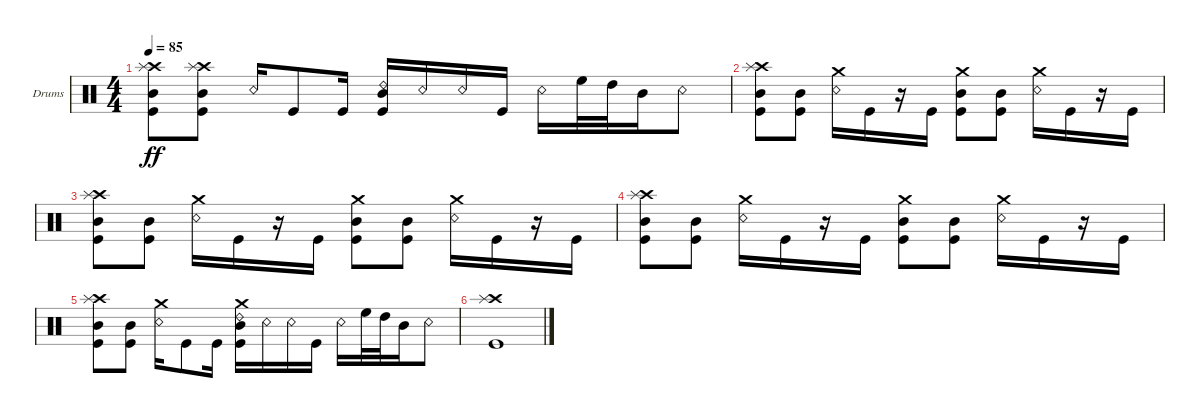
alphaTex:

\defaultSystemsLayout 4
\bracketExtendMode groupsimilarinstruments
\firstSystemTrackNameOrientation horizontal
\otherSystemsTrackNameOrientation horizontal
\track ("Drumkit" "Drums") {instrument percussion}
\staff {score}
\articulation defaults
\ts (4 4)
\tempo 85
\clef neutral
\scale
0.333333
\ks c
("Crash high (hit)" "Splash (hit)" "Mid Tom (hit)" "Kick (hit)").8{dy ff} ("Crash high (hit)" "Splash (hit)" "Mid Tom (hit)" "Kick (hit)").8 "Snare (rim shot)".16 "Kick (hit)".8 "Kick (hit)".16 ("Mid Tom (hit)" "Kick (hit)" "Ride (bell) 2").16 "Snare (rim shot)".16 "Snare (rim shot)".16 "Kick (hit)".16 "Snare (rim shot)".16 "High Floor Tom (hit)".32 "High Tom (hit)".32 "Mid Tom (hit)".16 "Snare (rim shot)".8 |
\scale
0.333333 ("Crash high (hit)" "Splash (hit)" "Mid Tom (hit)" "Kick (hit)").8 ("Mid Tom (hit)" "Kick (hit)").8 ("Snare (rim shot)" "Crash medium (hit)").16 "Kick (hit)".16 r.16 "Kick (hit)".16 ("Mid Tom (hit)" "Kick (hit)" "Crash medium (hit)").8 ("Mid Tom (hit)" "Kick (hit)").8 ("Snare (rim shot)" "Crash medium (hit)").16 "Kick (hit)".16 r.16 "Kick (hit)".16 |
\scale
0.333333 ("Crash high (hit)" "Splash (hit)" "Mid Tom (hit)" "Kick (hit)").8 ("Mid Tom (hit)" "Kick (hit)").8 ("Snare (rim shot)" "Crash medium (hit)").16 "Kick (hit)".16 r.16 "Kick (hit)".16 ("Mid Tom (hit)" "Kick (hit)" "Crash medium (hit)").8 ("Mid Tom (hit)" "Kick (hit)").8 ("Snare (rim shot)" "Crash medium (hit)").16 "Kick (hit)".16 r.16 "Kick (hit)".16 |
\scale
0.333333 ("Crash high (hit)" "Splash (hit)" "Mid Tom (hit)" "Kick (hit)").8 ("Mid Tom (hit)" "Kick (hit)").8 ("Snare (rim shot)" "Crash medium (hit)").16 "Kick (hit)".16 r.16 "Kick (hit)".16 ("Mid Tom (hit)" "Kick (hit)" "Crash medium (hit)").8 ("Mid Tom (hit)" "Kick (hit)").8 ("Snare (rim shot)" "Crash medium (hit)").16 "Kick (hit)".16 r.16 "Kick (hit)".16 |
\scale
0.333333 ("Crash high (hit)" "Splash (hit)" "Mid Tom (hit)" "Kick (hit)").8 ("Mid Tom (hit)" "Kick (hit)").8 ("Snare (rim shot)" "Crash medium (hit)").16 "Kick (hit)".8 "Kick (hit)".16 ("Mid Tom (hit)" "Kick (hit)" "Ride (bell) 2" "Crash medium (hit)").16 "Snare (rim shot)".16 "Snare (rim shot)".16 "Kick (hit)".16 "Snare (rim shot)".16 "High Floor Tom (hit)".32 "High Tom (hit)".32 "Mid Tom (hit)".16 "Snare (rim shot)".8 |
\scale
0.333333 ("Kick (hit)" "Crash high (hit)" "Splash (hit)").1 |
\scale
0.333333
